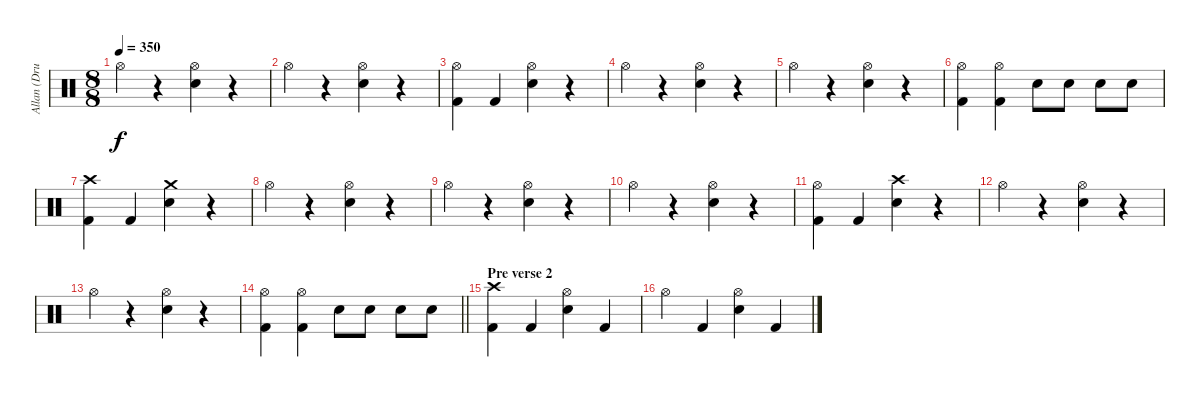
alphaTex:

\track ("Allan (Drums)" "Allan (Dru") {solo instrument percussion}
\staff {score}
\articulation defaults
\ts (8 8)
\tempo 350
\clef neutral
\ks c "Hi-Hat (open)".4{dy f}
r.4 ("Hi-Hat (open)" "Snare (hit) 2").4 r.4 |
"Hi-Hat (open)".4 r.4 ("Hi-Hat (open)" "Snare (hit) 2").4 r.4 |
("Hi-Hat (open)" "Kick (hit) 2").4 "Kick (hit) 2".4 ("Hi-Hat (open)" "Snare (hit) 2").4 r.4 |
"Hi-Hat (open)".4 r.4 ("Hi-Hat (open)" "Snare (hit) 2").4 r.4 |
"Hi-Hat (open)".4 r.4 ("Hi-Hat (open)" "Snare (hit) 2").4 r.4 |
("Hi-Hat (open)" "Kick (hit) 2").4 ("Hi-Hat (open)" "Kick (hit) 2").4 "Snare (hit) 2".8 "Snare (hit) 2".8 "Snare (hit) 2".8 "Snare (hit) 2".8 |
("Crash high (hit)" "Kick (hit) 2").4 "Kick (hit) 2".4 ("Crash medium (hit)" "Snare (hit) 2").4 r.4 |
"Hi-Hat (open)".4 r.4 ("Hi-Hat (open)" "Snare (hit) 2").4 r.4 |
"Hi-Hat (open)".4 r.4 ("Hi-Hat (open)" "Snare (hit) 2").4 r.4 |
"Hi-Hat (open)".4 r.4 ("Hi-Hat (open)" "Snare (hit) 2").4 r.4 |
("Hi-Hat (open)" "Kick (hit) 2").4 "Kick (hit) 2".4 ("Crash high (hit)" "Snare (hit) 2").4 r.4 |
"Hi-Hat (open)".4 r.4 ("Hi-Hat (open)" "Snare (hit) 2").4 r.4 |
"Hi-Hat (open)".4 r.4 ("Hi-Hat (open)" "Snare (hit) 2").4 r.4 |
\barLineRight lightlight
("Hi-Hat (open)" "Kick (hit) 2").4 ("Hi-Hat (open)" "Kick (hit) 2").4 "Snare (hit) 2".8 "Snare (hit) 2".8 "Snare (hit) 2".8 "Snare (hit) 2".8 |
\section ("" "Pre verse 2")
("Crash high (hit)" "Kick (hit) 2").4 "Kick (hit) 2".4 ("Hi-Hat (open)" "Snare (hit) 2").4 "Kick (hit) 2".4 |
"Hi-Hat (open)".4 "Kick (hit) 2".4 ("Hi-Hat (open)" "Snare (hit) 2").4 "Kick (hit) 2".4
